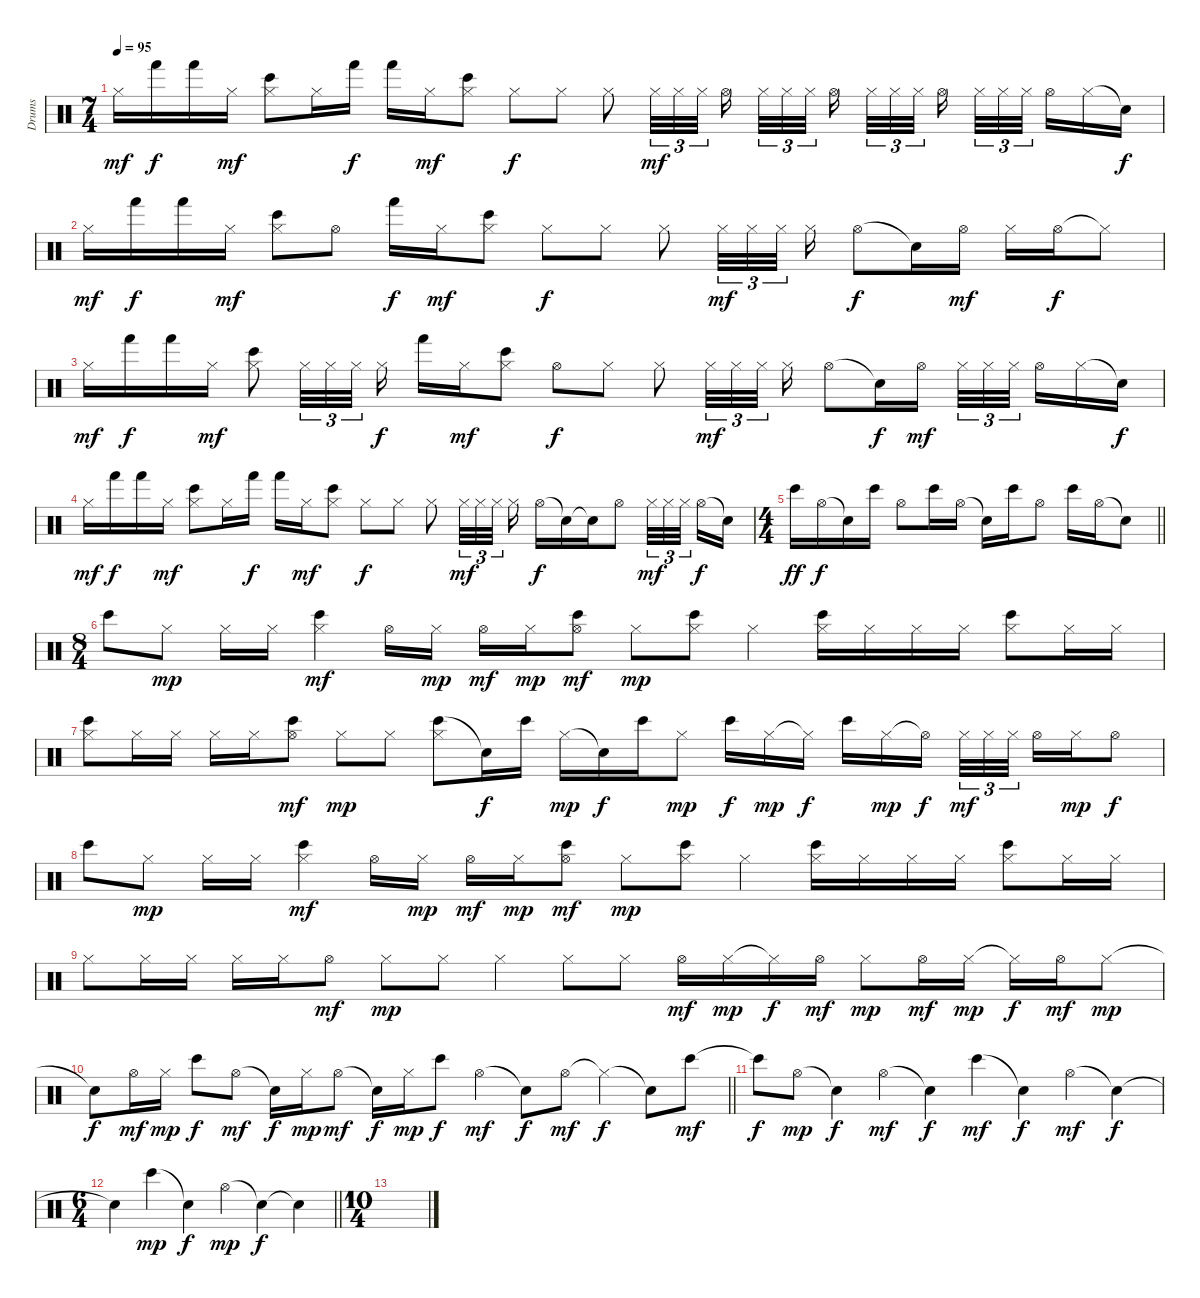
\track ("Drums" "Drums") {instrument percussion}
\staff {score}
\articulation defaults
\ts (7 4)
\section ("" "")
\tempo 95
\clef neutral
\ks c "Hi-Hat (closed)".16{dy mf} "Hand (hit)".16{dy f} "Hand (hit)".16 "Hi-Hat (closed)".16{dy mf}
("Bongo High (hit)" "Hi-Hat (closed)").8 "Hi-Hat (closed)".16 "Hand (hit)".16{dy f} "Hand (hit)".16 "Hi-Hat (closed)".16{dy mf} ("Bongo High (hit)" "Hi-Hat (closed)").8 "Hi-Hat (closed)".8{dy f} "Hi-Hat (closed)".8 "Hi-Hat (closed)".8 "Hi-Hat (closed)".32{tu (3 2) dy mf} "Hi-Hat (closed)".32{tu (3 2)} "Hi-Hat (closed)".32{tu (3 2) beam splitsecondary} "Hi-Hat (open)".16 "Hi-Hat (closed)".32{tu (3 2)} "Hi-Hat (closed)".32{tu (3 2)} "Hi-Hat (closed)".32{tu (3 2) beam splitsecondary} "Hi-Hat (open)".16{beam splitsecondary} "Hi-Hat (closed)".32{tu (3 2)} "Hi-Hat (closed)".32{tu (3 2)} "Hi-Hat (closed)".32{tu (3 2) beam splitsecondary} "Hi-Hat (open)".16 "Hi-Hat (closed)".32{tu (3 2)} "Hi-Hat (closed)".32{tu (3 2)} "Hi-Hat (closed)".32{tu (3 2) beam splitsecondary} "Hi-Hat (open)".16 "Hi-Hat (closed)".16 "Snare (hit)"{t}.16{dy f} |
"Hi-Hat (closed)".16{dy mf} "Hand (hit)".16{dy f} "Hand (hit)".16 "Hi-Hat (closed)".16{dy mf} ("Bongo High (hit)" "Hi-Hat (closed)").8 "Hi-Hat (open)".8 "Hand (hit)".16{dy f} "Hi-Hat (closed)".16{dy mf} ("Bongo High (hit)" "Hi-Hat (closed)").8 "Hi-Hat (closed)".8{dy f} "Hi-Hat (closed)".8 "Hi-Hat (closed)".8 "Hi-Hat (closed)".32{tu (3 2) dy mf} "Hi-Hat (closed)".32{tu (3 2)} "Hi-Hat (closed)".32{tu (3 2) beam splitsecondary} "Hi-Hat (closed)".16 "Hi-Hat (open)".8{dy f} "Snare (hit)"{t}.16 "Hi-Hat (open)".16{dy mf} "Hi-Hat (closed)".16 "Hi-Hat (open)".16{dy f} "Hi-Hat (closed)"{t}.8 |
"Hi-Hat (closed)".16{dy mf} "Hand (hit)".16{dy f} "Hand (hit)".16 "Hi-Hat (closed)".16{dy mf} ("Bongo High (hit)" "Hi-Hat (closed)").8 "Hi-Hat (closed)".32{tu (3 2)} "Hi-Hat (closed)".32{tu (3 2)} "Hi-Hat (closed)".32{tu (3 2) beam splitsecondary} "Hi-Hat (closed)".16{dy f} "Hand (hit)".16 "Hi-Hat (closed)".16{dy mf} ("Bongo High (hit)" "Hi-Hat (closed)").8 "Hi-Hat (open)".8{dy f} "Hi-Hat (closed)".8 "Hi-Hat (closed)".8 "Hi-Hat (closed)".32{tu (3 2) dy mf} "Hi-Hat (closed)".32{tu (3 2)} "Hi-Hat (closed)".32{tu (3 2) beam splitsecondary} "Hi-Hat (closed)".16 "Hi-Hat (open)".8 "Snare (hit)"{t}.16{dy f} "Hi-Hat (open)".16{dy mf} "Hi-Hat (closed)".32{tu (3 2)} "Hi-Hat (closed)".32{tu (3 2)} "Hi-Hat (closed)".32{tu (3 2) beam splitsecondary} "Hi-Hat (open)".16 "Hi-Hat (closed)".16 "Snare (hit)"{t}.16{dy f} |
"Hi-Hat (closed)".16{dy mf} "Hand (hit)".16{dy f} "Hand (hit)".16 "Hi-Hat (closed)".16{dy mf} ("Bongo High (hit)" "Hi-Hat (closed)").8 "Hi-Hat (closed)".16 "Hand (hit)".16{dy f} "Hand (hit)".16 "Hi-Hat (closed)".16{dy mf} ("Bongo High (hit)" "Hi-Hat (closed)").8 "Hi-Hat (closed)".8{dy f} "Hi-Hat (closed)".8 "Hi-Hat (closed)".8 "Hi-Hat (closed)".32{tu (3 2) dy mf} "Hi-Hat (closed)".32{tu (3 2)} "Hi-Hat (closed)".32{tu (3 2) beam splitsecondary} "Hi-Hat (closed)".16 "Hi-Hat (open)".16{dy f} "Snare (hit)"{t}.16 "Snare (hit)"{t}.16 "Hi-Hat (open)".8 "Hi-Hat (closed)".32{tu (3 2) dy mf} "Hi-Hat (closed)".32{tu (3 2)} "Hi-Hat (closed)".32{tu (3 2) beam splitsecondary} "Hi-Hat (open)".16{dy f} "Snare (hit)"{t}.16 |
\ts (4 4)
\barLineRight lightlight "Bongo High (hit)".16{dy ff} "Hi-Hat (open)".16{dy f} "Snare (hit)"{t}.16 "Bongo High (hit)".16 "Hi-Hat (open)".8 "Bongo High (hit)".16 "Hi-Hat (open)".16 "Snare (hit)"{t}.16 "Bongo High (hit)".16 "Hi-Hat (open)".8 "Bongo High (hit)".16 "Hi-Hat (open)".16 "Snare (hit)"{t}.8
|
\ts (8 4)
\section ("" "")
"Bongo High (hit)".8 "Hi-Hat (closed)".8{dy mp} "Hi-Hat (closed)".16 "Hi-Hat (closed)".16 ("Bongo High (hit)" "Hi-Hat (closed)").4{dy mf} "Hi-Hat (open)".16 "Hi-Hat (closed)".16{dy mp} "Hi-Hat (open)".16{dy mf} "Hi-Hat (closed)".16{dy mp} ("Bongo High (hit)" "Hi-Hat (open)").8{dy mf} "Hi-Hat (closed)".8{dy mp} ("Bongo High (hit)" "Hi-Hat (closed)").8 "Hi-Hat (closed)".4 ("Bongo High (hit)" "Hi-Hat (closed)").16 "Hi-Hat (closed)".16 "Hi-Hat (closed)".16 "Hi-Hat (closed)".16 ("Bongo High (hit)" "Hi-Hat (closed)").8 "Hi-Hat (closed)".16 "Hi-Hat (closed)".16 |
("Bongo High (hit)" "Hi-Hat (closed)").8 "Hi-Hat (closed)".16 "Hi-Hat (closed)".16 "Hi-Hat (closed)".16 "Hi-Hat (closed)".16 ("Bongo High (hit)" "Hi-Hat (open)").8{dy mf} "Hi-Hat (closed)".8{dy mp} "Hi-Hat (closed)".8 ("Bongo High (hit)" "Hi-Hat (closed)").8 "Snare (hit)"{t}.16{dy f} "Bongo High (hit)".16 "Hi-Hat (closed)".16{dy mp} "Snare (hit)"{t}.16{dy f} "Bongo High (hit)".16 "Hi-Hat (closed)".8{dy mp} "Bongo High (hit)".16{dy f} "Hi-Hat (closed)".16{dy mp} "Hi-Hat (closed)"{t}.16{dy f} "Bongo High (hit)".16 "Hi-Hat (closed)".16{dy mp} "Hi-Hat (open)"{t}.16{dy f beam splitsecondary} "Hi-Hat (closed)".32{tu (3 2) dy mf} "Hi-Hat (closed)".32{tu (3 2)} "Hi-Hat (closed)".32{tu (3 2)} "Hi-Hat (open)".16 "Hi-Hat (closed)".16{dy mp} "Hi-Hat (open)".8{dy f} |
"Bongo High (hit)".8 "Hi-Hat (closed)".8{dy mp} "Hi-Hat (closed)".16 "Hi-Hat (closed)".16 ("Bongo High (hit)" "Hi-Hat (closed)").4{dy mf} "Hi-Hat (open)".16 "Hi-Hat (closed)".16{dy mp} "Hi-Hat (open)".16{dy mf} "Hi-Hat (closed)".16{dy mp} ("Bongo High (hit)" "Hi-Hat (open)").8{dy mf} "Hi-Hat (closed)".8{dy mp} ("Bongo High (hit)" "Hi-Hat (closed)").8 "Hi-Hat (closed)".4 ("Bongo High (hit)" "Hi-Hat (closed)").16 "Hi-Hat (closed)".16 "Hi-Hat (closed)".16 "Hi-Hat (closed)".16 ("Bongo High (hit)" "Hi-Hat (closed)").8 "Hi-Hat (closed)".16 "Hi-Hat (closed)".16 |
"Hi-Hat (closed)".8 "Hi-Hat (closed)".16 "Hi-Hat (closed)".16 "Hi-Hat (closed)".16 "Hi-Hat (closed)".16 "Hi-Hat (open)".8{dy mf} "Hi-Hat (closed)".8{dy mp} "Hi-Hat (closed)".8 "Hi-Hat (closed)".4 "Hi-Hat (closed)".8 "Hi-Hat (closed)".8 "Hi-Hat (open)".16{dy mf} "Hi-Hat (closed)".16{dy mp} "Hi-Hat (closed)"{t}.16{dy f} "Hi-Hat (open)".16{dy mf} "Hi-Hat (closed)".8{dy mp} "Hi-Hat (open)".16{dy mf} "Hi-Hat (closed)".16{dy mp} "Hi-Hat (closed)"{t}.16{dy f} "Hi-Hat (open)".16{dy mf} "Hi-Hat (closed)".8{dy mp} |
\barLineRight lightlight "Snare (hit)"{t}.8{dy f} "Hi-Hat (open)".16{dy mf} "Hi-Hat (closed)".16{dy mp} "Bongo High (hit)".8{dy f} "Hi-Hat (open)".8{dy mf} "Snare (hit)"{t}.16{dy f} "Hi-Hat (closed)".16{dy mp} "Hi-Hat (open)".8{dy mf} "Snare (hit)"{t}.16{dy f} "Hi-Hat (closed)".16{dy mp} "Bongo High (hit)".8{dy f} "Hi-Hat (open)".4{dy mf} "Snare (hit)"{t}.8{dy f} "Hi-Hat (open)".8{dy mf} "Hi-Hat (closed)"{t}.4{dy f} "Snare (hit)"{t}.8 "Bongo High (hit)".8{dy mf}
|
"Bongo High (hit)"{t}.8{dy f} "Hi-Hat (open)".8{dy mp} "Snare (hit)"{t}.4{dy f} "Hi-Hat (open)".4{dy mf} "Snare (hit)"{t}.4{dy f} "Bongo High (hit)".4{dy mf} "Snare (hit)"{t}.4{dy f} "Hi-Hat (open)".4{dy mf} "Snare (hit)"{t}.4{dy f} |
\ts (6 4)
\barLineRight lightlight "Snare (hit)"{t}.4 "Bongo High (hit)".4{dy mp} "Snare (hit)"{t}.4{dy f} "Hi-Hat (open)".4{dy mp} "Snare (hit)"{t}.4{dy f} "Snare (hit)"{t}.4
|
\ts (10 4)
\section ("" "")
